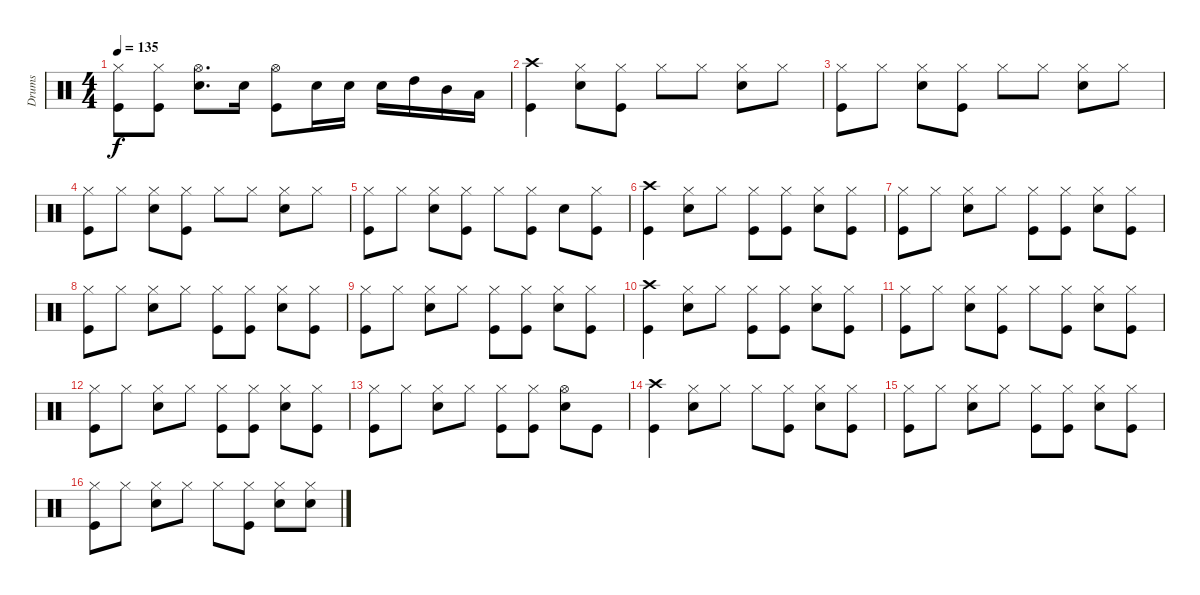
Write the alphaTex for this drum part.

\track ("Drums" "Drums") {instrument percussion}
\staff {score}
\articulation defaults
\ts (4 4)
\tempo 135
\clef neutral
\ks c
("Kick (hit)" "Hi-Hat (closed)").8{dy f} ("Kick (hit)" "Hi-Hat (closed)").8 ("Electric Snare (hit)" "Hi-Hat (open)").8{d} "Electric Snare (hit)".16 ("Kick (hit)" "Hi-Hat (open)").8 "Electric Snare (hit)".16 "Electric Snare (hit)".16 "Electric Snare (hit)".16 "High Tom (hit)".16 "Mid Tom (hit)".16 "Low Tom (hit)".16 |
("Kick (hit)" "Crash high (hit)").4 ("Electric Snare (hit)" "Hi-Hat (closed)").8 ("Kick (hit)" "Hi-Hat (closed)").8 "Hi-Hat (closed)".8 "Hi-Hat (closed)".8 ("Electric Snare (hit)" "Hi-Hat (closed)").8 "Hi-Hat (closed)".8 |
("Kick (hit)" "Hi-Hat (closed)").8 "Hi-Hat (closed)".8 ("Electric Snare (hit)" "Hi-Hat (closed)").8 ("Kick (hit)" "Hi-Hat (closed)").8 "Hi-Hat (closed)".8 "Hi-Hat (closed)".8 ("Electric Snare (hit)" "Hi-Hat (closed)").8 "Hi-Hat (closed)".8 |
("Kick (hit)" "Hi-Hat (closed)").8 "Hi-Hat (closed)".8 ("Electric Snare (hit)" "Hi-Hat (closed)").8 ("Kick (hit)" "Hi-Hat (closed)").8 "Hi-Hat (closed)".8 "Hi-Hat (closed)".8 ("Electric Snare (hit)" "Hi-Hat (closed)").8 "Hi-Hat (closed)".8 |
("Kick (hit)" "Hi-Hat (closed)").8 "Hi-Hat (closed)".8 ("Electric Snare (hit)" "Hi-Hat (closed)").8 ("Kick (hit)" "Hi-Hat (closed)").8 "Hi-Hat (closed)".8 ("Kick (hit)" "Hi-Hat (closed)").8 "Electric Snare (hit)".8 ("Kick (hit)" "Hi-Hat (closed)").8 |
("Kick (hit)" "Crash high (hit)").4 ("Electric Snare (hit)" "Hi-Hat (closed)").8 "Hi-Hat (closed)".8 ("Kick (hit)" "Hi-Hat (closed)").8 ("Kick (hit)" "Hi-Hat (closed)").8 ("Electric Snare (hit)" "Hi-Hat (closed)").8 ("Kick (hit)" "Hi-Hat (closed)").8 |
("Kick (hit)" "Hi-Hat (closed)").8 "Hi-Hat (closed)".8 ("Electric Snare (hit)" "Hi-Hat (closed)").8 "Hi-Hat (closed)".8 ("Kick (hit)" "Hi-Hat (closed)").8 ("Kick (hit)" "Hi-Hat (closed)").8 ("Electric Snare (hit)" "Hi-Hat (closed)").8 ("Kick (hit)" "Hi-Hat (closed)").8 |
("Kick (hit)" "Hi-Hat (closed)").8 "Hi-Hat (closed)".8 ("Electric Snare (hit)" "Hi-Hat (closed)").8 "Hi-Hat (closed)".8 ("Kick (hit)" "Hi-Hat (closed)").8 ("Kick (hit)" "Hi-Hat (closed)").8 ("Electric Snare (hit)" "Hi-Hat (closed)").8 ("Kick (hit)" "Hi-Hat (closed)").8 |
("Kick (hit)" "Hi-Hat (closed)").8 "Hi-Hat (closed)".8 ("Electric Snare (hit)" "Hi-Hat (closed)").8 "Hi-Hat (closed)".8 ("Kick (hit)" "Hi-Hat (closed)").8 ("Kick (hit)" "Hi-Hat (closed)").8 ("Electric Snare (hit)" "Hi-Hat (closed)").8 ("Kick (hit)" "Hi-Hat (closed)").8 |
("Kick (hit)" "Crash high (hit)").4 ("Electric Snare (hit)" "Hi-Hat (closed)").8 "Hi-Hat (closed)".8 ("Kick (hit)" "Hi-Hat (closed)").8 ("Kick (hit)" "Hi-Hat (closed)").8 ("Electric Snare (hit)" "Hi-Hat (closed)").8 ("Kick (hit)" "Hi-Hat (closed)").8 |
("Kick (hit)" "Hi-Hat (closed)").8 "Hi-Hat (closed)".8 ("Electric Snare (hit)" "Hi-Hat (closed)").8 ("Kick (hit)" "Hi-Hat (closed)").8 "Hi-Hat (closed)".8 ("Kick (hit)" "Hi-Hat (closed)").8 ("Electric Snare (hit)" "Hi-Hat (closed)").8 ("Kick (hit)" "Hi-Hat (closed)").8 |
("Kick (hit)" "Hi-Hat (closed)").8 "Hi-Hat (closed)".8 ("Electric Snare (hit)" "Hi-Hat (closed)").8 "Hi-Hat (closed)".8 ("Kick (hit)" "Hi-Hat (closed)").8 ("Kick (hit)" "Hi-Hat (closed)").8 ("Electric Snare (hit)" "Hi-Hat (closed)").8 ("Kick (hit)" "Hi-Hat (closed)").8 |
("Kick (hit)" "Hi-Hat (closed)").8 "Hi-Hat (closed)".8 ("Electric Snare (hit)" "Hi-Hat (closed)").8 "Hi-Hat (closed)".8 ("Kick (hit)" "Hi-Hat (closed)").8 ("Kick (hit)" "Hi-Hat (closed)").8 ("Electric Snare (hit)" "Hi-Hat (open)").8 "Kick (hit)".8 |
("Kick (hit)" "Crash high (hit)").4 ("Electric Snare (hit)" "Hi-Hat (closed)").8 "Hi-Hat (closed)".8 "Hi-Hat (closed)".8 ("Kick (hit)" "Hi-Hat (closed)").8 ("Electric Snare (hit)" "Hi-Hat (closed)").8 ("Kick (hit)" "Hi-Hat (closed)").8 |
("Kick (hit)" "Hi-Hat (closed)").8 "Hi-Hat (closed)".8 ("Electric Snare (hit)" "Hi-Hat (closed)").8 "Hi-Hat (closed)".8 ("Kick (hit)" "Hi-Hat (closed)").8 ("Kick (hit)" "Hi-Hat (closed)").8 ("Electric Snare (hit)" "Hi-Hat (closed)").8 ("Kick (hit)" "Hi-Hat (closed)").8 |
("Kick (hit)" "Hi-Hat (closed)").8 "Hi-Hat (closed)".8 ("Electric Snare (hit)" "Hi-Hat (closed)").8 "Hi-Hat (closed)".8 "Hi-Hat (closed)".8 ("Kick (hit)" "Hi-Hat (closed)").8 ("Electric Snare (hit)" "Hi-Hat (closed)").8 ("Electric Snare (hit)" "Hi-Hat (closed)").8
